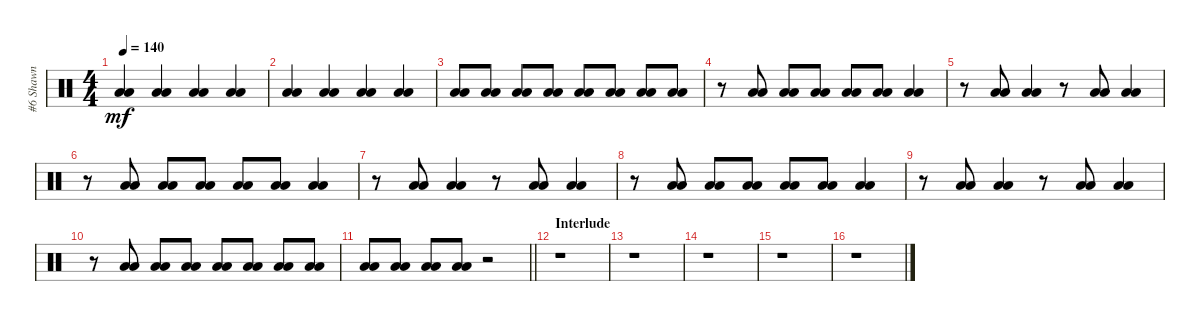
\track ("#6 Shawn" "#6 Shawn") {solo instrument percussion}
\staff {score}
\articulation defaults
\ts (4 4)
\tempo 140
\clef neutral
\ks c
("Low Floor Tom (hit)" "Low Floor Tom (hit)").4{dy mf} ("Low Tom (hit)" "Low Tom (hit)").4 ("Low Floor Tom (hit)" "Low Floor Tom (hit)").4 ("Low Tom (hit)" "Low Tom (hit)").4 |
("Low Floor Tom (hit)" "Low Floor Tom (hit)").4 ("Low Tom (hit)" "Low Tom (hit)").4 ("Low Floor Tom (hit)" "Low Floor Tom (hit)").4 ("Low Tom (hit)" "Low Tom (hit)").4 |
("Low Tom (hit)" "Low Floor Tom (hit)").8 ("Low Tom (hit)" "Low Floor Tom (hit)").8 ("Low Tom (hit)" "Low Floor Tom (hit)").8 ("Low Tom (hit)" "Low Floor Tom (hit)").8 ("Low Tom (hit)" "Low Floor Tom (hit)").8 ("Low Tom (hit)" "Low Floor Tom (hit)").8 ("Low Tom (hit)" "Low Floor Tom (hit)").8 ("Low Tom (hit)" "Low Floor Tom (hit)").8 |
r.8 ("Low Tom (hit)" "Low Floor Tom (hit)").8 ("Low Tom (hit)" "Low Floor Tom (hit)").8 ("Low Tom (hit)" "Low Floor Tom (hit)").8 ("Low Tom (hit)" "Low Floor Tom (hit)").8 ("Low Tom (hit)" "Low Floor Tom (hit)").8 ("Low Tom (hit)" "Low Floor Tom (hit)").4 |
r.8 ("Low Tom (hit)" "Low Floor Tom (hit)").8 ("Low Tom (hit)" "Low Floor Tom (hit)").4 r.8 ("Low Tom (hit)" "Low Floor Tom (hit)").8 ("Low Tom (hit)" "Low Floor Tom (hit)").4 |
r.8 ("Low Tom (hit)" "Low Floor Tom (hit)").8 ("Low Tom (hit)" "Low Floor Tom (hit)").8 ("Low Tom (hit)" "Low Floor Tom (hit)").8 ("Low Tom (hit)" "Low Floor Tom (hit)").8 ("Low Tom (hit)" "Low Floor Tom (hit)").8 ("Low Tom (hit)" "Low Floor Tom (hit)").4 |
r.8 ("Low Tom (hit)" "Low Floor Tom (hit)").8 ("Low Tom (hit)" "Low Floor Tom (hit)").4 r.8 ("Low Tom (hit)" "Low Floor Tom (hit)").8 ("Low Tom (hit)" "Low Floor Tom (hit)").4 |
r.8 ("Low Tom (hit)" "Low Floor Tom (hit)").8 ("Low Tom (hit)" "Low Floor Tom (hit)").8 ("Low Tom (hit)" "Low Floor Tom (hit)").8 ("Low Tom (hit)" "Low Floor Tom (hit)").8 ("Low Tom (hit)" "Low Floor Tom (hit)").8 ("Low Tom (hit)" "Low Floor Tom (hit)").4 |
r.8 ("Low Tom (hit)" "Low Floor Tom (hit)").8 ("Low Tom (hit)" "Low Floor Tom (hit)").4 r.8 ("Low Tom (hit)" "Low Floor Tom (hit)").8 ("Low Tom (hit)" "Low Floor Tom (hit)").4 |
r.8 ("Low Tom (hit)" "Low Floor Tom (hit)").8 ("Low Tom (hit)" "Low Floor Tom (hit)").8 ("Low Tom (hit)" "Low Floor Tom (hit)").8 ("Low Tom (hit)" "Low Floor Tom (hit)").8 ("Low Tom (hit)" "Low Floor Tom (hit)").8 ("Low Tom (hit)" "Low Floor Tom (hit)").8 ("Low Tom (hit)" "Low Floor Tom (hit)").8 |
\barLineRight lightlight
("Low Tom (hit)" "Low Floor Tom (hit)").8 ("Low Tom (hit)" "Low Floor Tom (hit)").8 ("Low Tom (hit)" "Low Floor Tom (hit)").8 ("Low Tom (hit)" "Low Floor Tom (hit)").8 r.2 |
\section ("" "Interlude")
r.1 |
r.1 |
r.1 |
r.1 |
r.1
